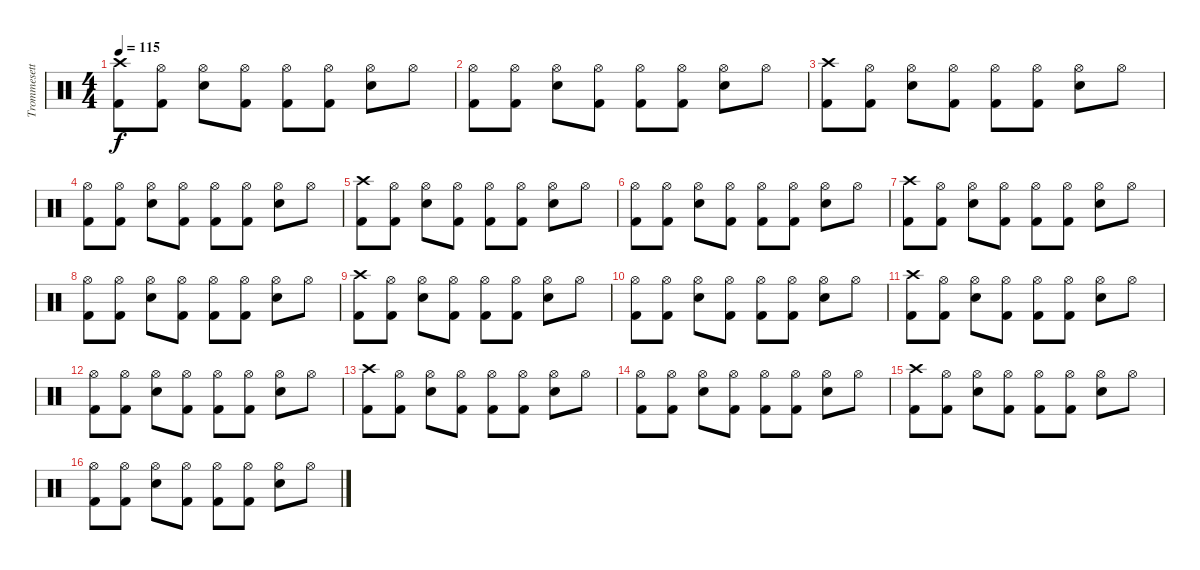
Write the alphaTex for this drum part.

\track ("Trommesett" "Trommesett") {instrument percussion}
\staff {score}
\articulation defaults
\ts (4 4)
\tempo 115
\clef neutral
\ks c
("Crash high (hit)" "Kick (hit) 2").8{dy f} ("Hi-Hat (open)" "Kick (hit) 2").8 ("Hi-Hat (open)" "Electric Snare (hit)").8 ("Hi-Hat (open)" "Kick (hit) 2").8 ("Hi-Hat (open)" "Kick (hit) 2").8 ("Hi-Hat (open)" "Kick (hit) 2").8 ("Hi-Hat (open)" "Electric Snare (hit)").8 "Hi-Hat (open)".8 |
("Hi-Hat (open)" "Kick (hit) 2").8 ("Hi-Hat (open)" "Kick (hit) 2").8 ("Hi-Hat (open)" "Electric Snare (hit)").8 ("Hi-Hat (open)" "Kick (hit) 2").8 ("Hi-Hat (open)" "Kick (hit) 2").8 ("Hi-Hat (open)" "Kick (hit) 2").8 ("Hi-Hat (open)" "Electric Snare (hit)").8 "Hi-Hat (open)".8 |
("Crash high (hit)" "Kick (hit) 2").8 ("Hi-Hat (open)" "Kick (hit) 2").8 ("Hi-Hat (open)" "Electric Snare (hit)").8 ("Hi-Hat (open)" "Kick (hit) 2").8 ("Hi-Hat (open)" "Kick (hit) 2").8 ("Hi-Hat (open)" "Kick (hit) 2").8 ("Hi-Hat (open)" "Electric Snare (hit)").8 "Hi-Hat (open)".8 |
("Hi-Hat (open)" "Kick (hit) 2").8 ("Hi-Hat (open)" "Kick (hit) 2").8 ("Hi-Hat (open)" "Electric Snare (hit)").8 ("Hi-Hat (open)" "Kick (hit) 2").8 ("Hi-Hat (open)" "Kick (hit) 2").8 ("Hi-Hat (open)" "Kick (hit) 2").8 ("Hi-Hat (open)" "Electric Snare (hit)").8 "Hi-Hat (open)".8 |
("Crash high (hit)" "Kick (hit) 2").8 ("Hi-Hat (open)" "Kick (hit) 2").8 ("Hi-Hat (open)" "Electric Snare (hit)").8 ("Hi-Hat (open)" "Kick (hit) 2").8 ("Hi-Hat (open)" "Kick (hit) 2").8 ("Hi-Hat (open)" "Kick (hit) 2").8 ("Hi-Hat (open)" "Electric Snare (hit)").8 "Hi-Hat (open)".8 |
("Hi-Hat (open)" "Kick (hit) 2").8 ("Hi-Hat (open)" "Kick (hit) 2").8 ("Hi-Hat (open)" "Electric Snare (hit)").8 ("Hi-Hat (open)" "Kick (hit) 2").8 ("Hi-Hat (open)" "Kick (hit) 2").8 ("Hi-Hat (open)" "Kick (hit) 2").8 ("Hi-Hat (open)" "Electric Snare (hit)").8 "Hi-Hat (open)".8 |
("Crash high (hit)" "Kick (hit) 2").8 ("Hi-Hat (open)" "Kick (hit) 2").8 ("Hi-Hat (open)" "Electric Snare (hit)").8 ("Hi-Hat (open)" "Kick (hit) 2").8 ("Hi-Hat (open)" "Kick (hit) 2").8 ("Hi-Hat (open)" "Kick (hit) 2").8 ("Hi-Hat (open)" "Electric Snare (hit)").8 "Hi-Hat (open)".8 |
("Hi-Hat (open)" "Kick (hit) 2").8 ("Hi-Hat (open)" "Kick (hit) 2").8 ("Hi-Hat (open)" "Electric Snare (hit)").8 ("Hi-Hat (open)" "Kick (hit) 2").8 ("Hi-Hat (open)" "Kick (hit) 2").8 ("Hi-Hat (open)" "Kick (hit) 2").8 ("Hi-Hat (open)" "Electric Snare (hit)").8 "Hi-Hat (open)".8 |
("Crash high (hit)" "Kick (hit) 2").8 ("Hi-Hat (open)" "Kick (hit) 2").8 ("Hi-Hat (open)" "Electric Snare (hit)").8 ("Hi-Hat (open)" "Kick (hit) 2").8 ("Hi-Hat (open)" "Kick (hit) 2").8 ("Hi-Hat (open)" "Kick (hit) 2").8 ("Hi-Hat (open)" "Electric Snare (hit)").8 "Hi-Hat (open)".8 |
("Hi-Hat (open)" "Kick (hit) 2").8 ("Hi-Hat (open)" "Kick (hit) 2").8 ("Hi-Hat (open)" "Electric Snare (hit)").8 ("Hi-Hat (open)" "Kick (hit) 2").8 ("Hi-Hat (open)" "Kick (hit) 2").8 ("Hi-Hat (open)" "Kick (hit) 2").8 ("Hi-Hat (open)" "Electric Snare (hit)").8 "Hi-Hat (open)".8 |
("Crash high (hit)" "Kick (hit) 2").8 ("Hi-Hat (open)" "Kick (hit) 2").8 ("Hi-Hat (open)" "Electric Snare (hit)").8 ("Hi-Hat (open)" "Kick (hit) 2").8 ("Hi-Hat (open)" "Kick (hit) 2").8 ("Hi-Hat (open)" "Kick (hit) 2").8 ("Hi-Hat (open)" "Electric Snare (hit)").8 "Hi-Hat (open)".8 |
("Hi-Hat (open)" "Kick (hit) 2").8 ("Hi-Hat (open)" "Kick (hit) 2").8 ("Hi-Hat (open)" "Electric Snare (hit)").8 ("Hi-Hat (open)" "Kick (hit) 2").8 ("Hi-Hat (open)" "Kick (hit) 2").8 ("Hi-Hat (open)" "Kick (hit) 2").8 ("Hi-Hat (open)" "Electric Snare (hit)").8 "Hi-Hat (open)".8 |
("Crash high (hit)" "Kick (hit) 2").8 ("Hi-Hat (open)" "Kick (hit) 2").8 ("Hi-Hat (open)" "Electric Snare (hit)").8 ("Hi-Hat (open)" "Kick (hit) 2").8 ("Hi-Hat (open)" "Kick (hit) 2").8 ("Hi-Hat (open)" "Kick (hit) 2").8 ("Hi-Hat (open)" "Electric Snare (hit)").8 "Hi-Hat (open)".8 |
("Hi-Hat (open)" "Kick (hit) 2").8 ("Hi-Hat (open)" "Kick (hit) 2").8 ("Hi-Hat (open)" "Electric Snare (hit)").8 ("Hi-Hat (open)" "Kick (hit) 2").8 ("Hi-Hat (open)" "Kick (hit) 2").8 ("Hi-Hat (open)" "Kick (hit) 2").8 ("Hi-Hat (open)" "Electric Snare (hit)").8 "Hi-Hat (open)".8 |
("Crash high (hit)" "Kick (hit) 2").8 ("Hi-Hat (open)" "Kick (hit) 2").8 ("Hi-Hat (open)" "Electric Snare (hit)").8 ("Hi-Hat (open)" "Kick (hit) 2").8 ("Hi-Hat (open)" "Kick (hit) 2").8 ("Hi-Hat (open)" "Kick (hit) 2").8 ("Hi-Hat (open)" "Electric Snare (hit)").8 "Hi-Hat (open)".8 |
("Hi-Hat (open)" "Kick (hit) 2").8 ("Hi-Hat (open)" "Kick (hit) 2").8 ("Hi-Hat (open)" "Electric Snare (hit)").8 ("Hi-Hat (open)" "Kick (hit) 2").8 ("Hi-Hat (open)" "Kick (hit) 2").8 ("Hi-Hat (open)" "Kick (hit) 2").8 ("Hi-Hat (open)" "Electric Snare (hit)").8 "Hi-Hat (open)".8
